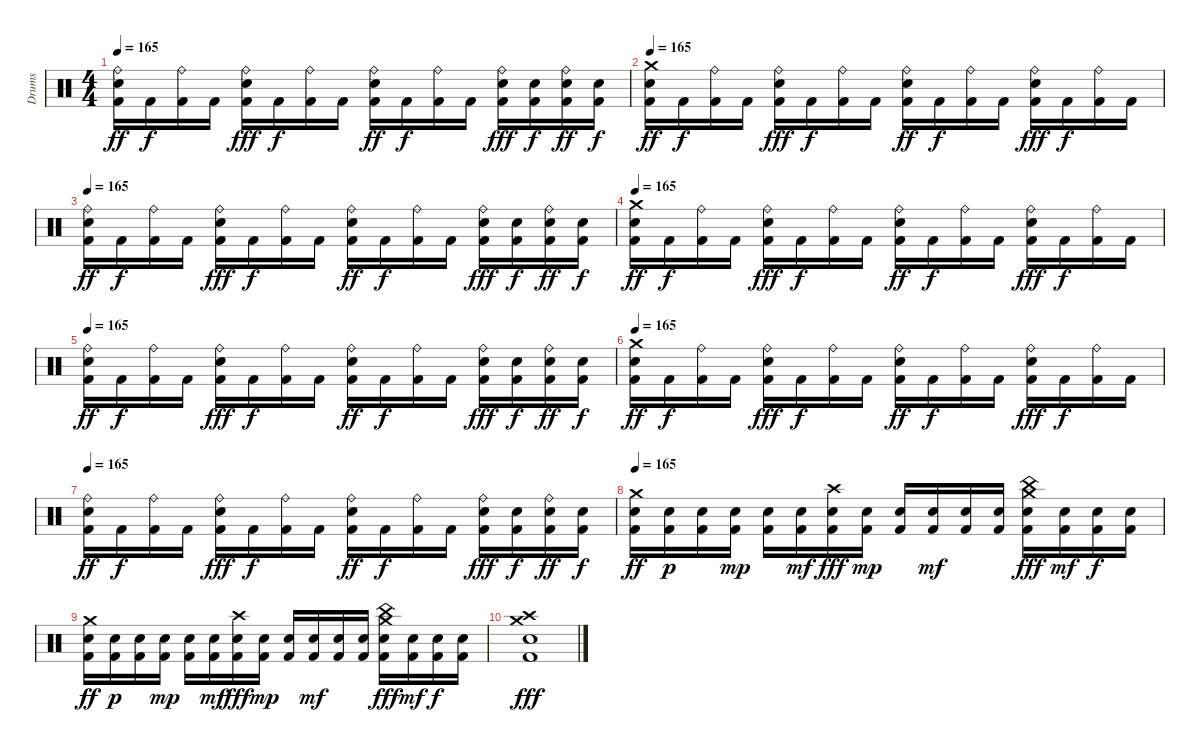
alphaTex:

\track ("Drums" "Drums") {instrument percussion}
\staff {score}
\articulation defaults
\ts (4 4)
\tempo 165
\clef neutral
\ks c
("Ride (bell)" "Snare (hit) 2" "Kick (hit) 2").16{dy ff} "Kick (hit) 2".16{dy f} ("Ride (bell)" "Kick (hit) 2").16 "Kick (hit) 2".16 ("Ride (bell)" "Snare (hit) 2" "Kick (hit) 2").16{dy fff} "Kick (hit) 2".16{dy f} ("Ride (bell)" "Kick (hit) 2").16 "Kick (hit) 2".16 ("Ride (bell)" "Snare (hit) 2" "Kick (hit) 2").16{dy ff} "Kick (hit) 2".16{dy f} ("Ride (bell)" "Kick (hit) 2").16 "Kick (hit) 2".16 ("Ride (bell)" "Snare (hit) 2" "Kick (hit) 2").16{dy fff} ("Snare (hit) 2" "Kick (hit) 2").16{dy f} ("Ride (bell)" "Snare (hit) 2" "Kick (hit) 2").16{dy ff} ("Snare (hit) 2" "Kick (hit) 2").16{dy f} |
\tempo 165
("Crash medium (hit)" "Snare (hit) 2" "Kick (hit) 2").16{dy ff} "Kick (hit) 2".16{dy f} ("Ride (bell)" "Kick (hit) 2").16 "Kick (hit) 2".16 ("Ride (bell)" "Snare (hit) 2" "Kick (hit) 2").16{dy fff} "Kick (hit) 2".16{dy f} ("Ride (bell)" "Kick (hit) 2").16 "Kick (hit) 2".16 ("Ride (bell)" "Snare (hit) 2" "Kick (hit) 2").16{dy ff} "Kick (hit) 2".16{dy f} ("Ride (bell)" "Kick (hit) 2").16 "Kick (hit) 2".16 ("Ride (bell)" "Snare (hit) 2" "Kick (hit) 2").16{dy fff} "Kick (hit) 2".16{dy f} ("Ride (bell)" "Kick (hit) 2").16 "Kick (hit) 2".16 |
\tempo 165
("Ride (bell)" "Snare (hit) 2" "Kick (hit) 2").16{dy ff} "Kick (hit) 2".16{dy f} ("Ride (bell)" "Kick (hit) 2").16 "Kick (hit) 2".16 ("Ride (bell)" "Snare (hit) 2" "Kick (hit) 2").16{dy fff} "Kick (hit) 2".16{dy f} ("Ride (bell)" "Kick (hit) 2").16 "Kick (hit) 2".16 ("Ride (bell)" "Snare (hit) 2" "Kick (hit) 2").16{dy ff} "Kick (hit) 2".16{dy f} ("Ride (bell)" "Kick (hit) 2").16 "Kick (hit) 2".16 ("Ride (bell)" "Snare (hit) 2" "Kick (hit) 2").16{dy fff} ("Snare (hit) 2" "Kick (hit) 2").16{dy f} ("Ride (bell)" "Snare (hit) 2" "Kick (hit) 2").16{dy ff} ("Snare (hit) 2" "Kick (hit) 2").16{dy f} |
\tempo 165
("Crash medium (hit)" "Snare (hit) 2" "Kick (hit) 2").16{dy ff} "Kick (hit) 2".16{dy f} ("Ride (bell)" "Kick (hit) 2").16 "Kick (hit) 2".16 ("Ride (bell)" "Snare (hit) 2" "Kick (hit) 2").16{dy fff} "Kick (hit) 2".16{dy f} ("Ride (bell)" "Kick (hit) 2").16 "Kick (hit) 2".16 ("Ride (bell)" "Snare (hit) 2" "Kick (hit) 2").16{dy ff} "Kick (hit) 2".16{dy f} ("Ride (bell)" "Kick (hit) 2").16 "Kick (hit) 2".16 ("Ride (bell)" "Snare (hit) 2" "Kick (hit) 2").16{dy fff} "Kick (hit) 2".16{dy f} ("Ride (bell)" "Kick (hit) 2").16 "Kick (hit) 2".16 |
\tempo 165
("Ride (bell)" "Snare (hit) 2" "Kick (hit) 2").16{dy ff} "Kick (hit) 2".16{dy f} ("Ride (bell)" "Kick (hit) 2").16 "Kick (hit) 2".16 ("Ride (bell)" "Snare (hit) 2" "Kick (hit) 2").16{dy fff} "Kick (hit) 2".16{dy f} ("Ride (bell)" "Kick (hit) 2").16 "Kick (hit) 2".16 ("Ride (bell)" "Snare (hit) 2" "Kick (hit) 2").16{dy ff} "Kick (hit) 2".16{dy f} ("Ride (bell)" "Kick (hit) 2").16 "Kick (hit) 2".16 ("Ride (bell)" "Snare (hit) 2" "Kick (hit) 2").16{dy fff} ("Snare (hit) 2" "Kick (hit) 2").16{dy f} ("Ride (bell)" "Snare (hit) 2" "Kick (hit) 2").16{dy ff} ("Snare (hit) 2" "Kick (hit) 2").16{dy f} |
\tempo 165
("Crash medium (hit)" "Snare (hit) 2" "Kick (hit) 2").16{dy ff} "Kick (hit) 2".16{dy f} ("Ride (bell)" "Kick (hit) 2").16 "Kick (hit) 2".16 ("Ride (bell)" "Snare (hit) 2" "Kick (hit) 2").16{dy fff} "Kick (hit) 2".16{dy f} ("Ride (bell)" "Kick (hit) 2").16 "Kick (hit) 2".16 ("Ride (bell)" "Snare (hit) 2" "Kick (hit) 2").16{dy ff} "Kick (hit) 2".16{dy f} ("Ride (bell)" "Kick (hit) 2").16 "Kick (hit) 2".16 ("Ride (bell)" "Snare (hit) 2" "Kick (hit) 2").16{dy fff} "Kick (hit) 2".16{dy f} ("Ride (bell)" "Kick (hit) 2").16 "Kick (hit) 2".16 |
\tempo 165
("Ride (bell)" "Snare (hit) 2" "Kick (hit) 2").16{dy ff} "Kick (hit) 2".16{dy f} ("Ride (bell)" "Kick (hit) 2").16 "Kick (hit) 2".16 ("Ride (bell)" "Snare (hit) 2" "Kick (hit) 2").16{dy fff} "Kick (hit) 2".16{dy f} ("Ride (bell)" "Kick (hit) 2").16 "Kick (hit) 2".16 ("Ride (bell)" "Snare (hit) 2" "Kick (hit) 2").16{dy ff} "Kick (hit) 2".16{dy f} ("Ride (bell)" "Kick (hit) 2").16 "Kick (hit) 2".16 ("Ride (bell)" "Snare (hit) 2" "Kick (hit) 2").16{dy fff} ("Snare (hit) 2" "Kick (hit) 2").16{dy f} ("Ride (bell)" "Snare (hit) 2" "Kick (hit) 2").16{dy ff} ("Snare (hit) 2" "Kick (hit) 2").16{dy f} |
\tempo 165
("Crash medium (hit)" "Snare (hit) 2" "Kick (hit) 2").16{dy ff} ("Snare (hit) 2" "Kick (hit) 2").16{dy p} ("Snare (hit) 2" "Kick (hit) 2").16 ("Snare (hit) 2" "Kick (hit) 2").16{dy mp} ("Snare (hit) 2" "Kick (hit) 2").16 ("Snare (hit) 2" "Kick (hit) 2").16{dy mf} ("Crash high (hit)" "Snare (hit) 2" "Kick (hit) 2").16{dy fff} ("Snare (hit) 2" "Kick (hit) 2").16{dy mp} ("Snare (hit) 2" "Kick (hit) 2").16 ("Snare (hit) 2" "Kick (hit) 2").16{dy mf} ("Snare (hit) 2" "Kick (hit) 2").16 ("Snare (hit) 2" "Kick (hit) 2").16 ("Crash medium (hit)" "China (hit)" "Snare (hit) 2" "Kick (hit) 2").16{dy fff} ("Snare (hit) 2" "Kick (hit) 2").16{dy mf} ("Snare (hit) 2" "Kick (hit) 2").16{dy f} ("Snare (hit) 2" "Kick (hit) 2").16 |
("Crash medium (hit)" "Snare (hit) 2" "Kick (hit) 2").16{dy ff} ("Snare (hit) 2" "Kick (hit) 2").16{dy p} ("Snare (hit) 2" "Kick (hit) 2").16 ("Snare (hit) 2" "Kick (hit) 2").16{dy mp} ("Snare (hit) 2" "Kick (hit) 2").16 ("Snare (hit) 2" "Kick (hit) 2").16{dy mf} ("Crash high (hit)" "Snare (hit) 2" "Kick (hit) 2").16{dy fff} ("Snare (hit) 2" "Kick (hit) 2").16{dy mp} ("Snare (hit) 2" "Kick (hit) 2").16 ("Snare (hit) 2" "Kick (hit) 2").16{dy mf} ("Snare (hit) 2" "Kick (hit) 2").16 ("Snare (hit) 2" "Kick (hit) 2").16 ("Crash medium (hit)" "China (hit)" "Snare (hit) 2" "Kick (hit) 2").16{dy fff} ("Snare (hit) 2" "Kick (hit) 2").16{dy mf} ("Snare (hit) 2" "Kick (hit) 2").16{dy f} ("Snare (hit) 2" "Kick (hit) 2").16 |
("Crash medium (hit)" "Crash high (hit)" "Snare (hit) 2" "Kick (hit) 2").1{dy fff}
